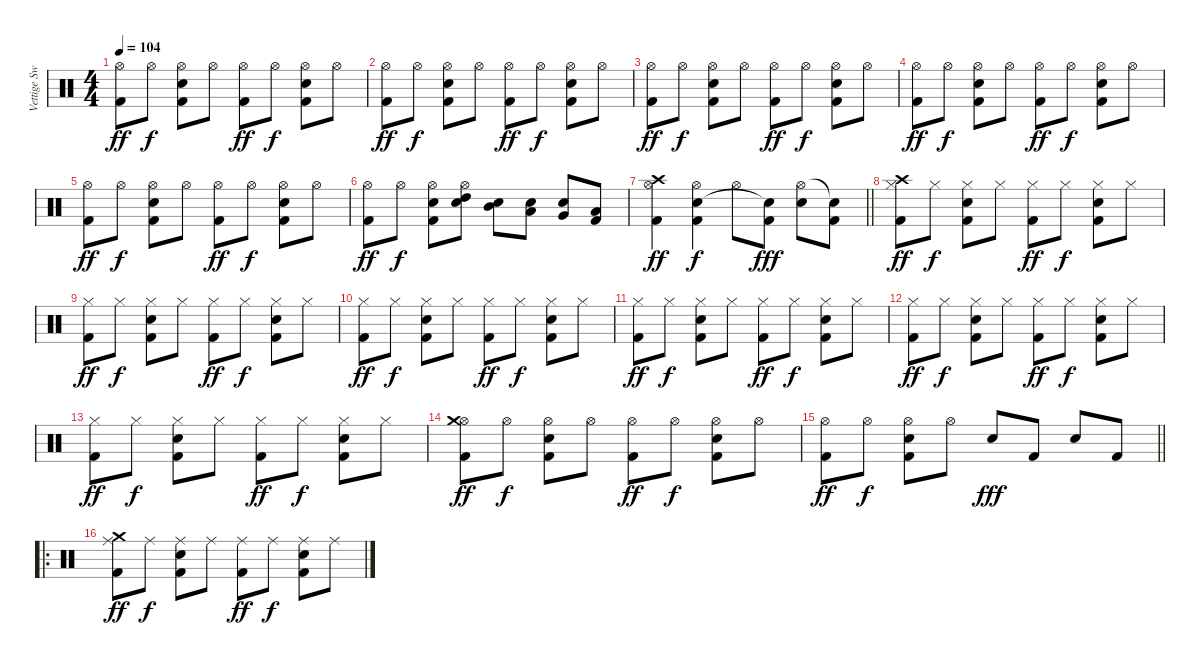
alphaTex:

\track ("Vettige Swa" "Vettige Sw") {instrument percussion}
\staff {score}
\articulation defaults
\ts (4 4)
\tempo 104
\clef neutral
\ks c
("Hi-Hat (open)" "Kick (hit) 2").8{dy ff} "Hi-Hat (open)".8{dy f} ("Hi-Hat (open)" "Electric Snare (hit)" "Kick (hit) 2").8 "Hi-Hat (open)".8 ("Hi-Hat (open)" "Kick (hit) 2").8{dy ff} "Hi-Hat (open)".8{dy f} ("Hi-Hat (open)" "Electric Snare (hit)" "Kick (hit) 2").8 "Hi-Hat (open)".8 |
("Hi-Hat (open)" "Kick (hit) 2").8{dy ff} "Hi-Hat (open)".8{dy f} ("Hi-Hat (open)" "Electric Snare (hit)" "Kick (hit) 2").8 "Hi-Hat (open)".8 ("Hi-Hat (open)" "Kick (hit) 2").8{dy ff} "Hi-Hat (open)".8{dy f} ("Hi-Hat (open)" "Electric Snare (hit)" "Kick (hit) 2").8 "Hi-Hat (open)".8 |
("Hi-Hat (open)" "Kick (hit) 2").8{dy ff} "Hi-Hat (open)".8{dy f} ("Hi-Hat (open)" "Electric Snare (hit)" "Kick (hit) 2").8 "Hi-Hat (open)".8 ("Hi-Hat (open)" "Kick (hit) 2").8{dy ff} "Hi-Hat (open)".8{dy f} ("Hi-Hat (open)" "Electric Snare (hit)" "Kick (hit) 2").8 "Hi-Hat (open)".8 |
("Hi-Hat (open)" "Kick (hit) 2").8{dy ff} "Hi-Hat (open)".8{dy f} ("Hi-Hat (open)" "Electric Snare (hit)" "Kick (hit) 2").8 "Hi-Hat (open)".8 ("Hi-Hat (open)" "Kick (hit) 2").8{dy ff} "Hi-Hat (open)".8{dy f} ("Hi-Hat (open)" "Electric Snare (hit)" "Kick (hit) 2").8 "Hi-Hat (open)".8 |
("Hi-Hat (open)" "Kick (hit) 2").8{dy ff} "Hi-Hat (open)".8{dy f} ("Hi-Hat (open)" "Electric Snare (hit)" "Kick (hit) 2").8 "Hi-Hat (open)".8 ("Hi-Hat (open)" "Kick (hit) 2").8{dy ff} "Hi-Hat (open)".8{dy f} ("Hi-Hat (open)" "Electric Snare (hit)" "Kick (hit) 2").8 "Hi-Hat (open)".8 |
("Hi-Hat (open)" "Kick (hit) 2").8{dy ff} "Hi-Hat (open)".8{dy f} ("Hi-Hat (open)" "Electric Snare (hit)" "Kick (hit) 2").8 ("Hi-Hat (open)" "Electric Snare (hit)" "High Tom (hit)").8 ("Electric Snare (hit)" "Mid Tom (hit)").8 ("Electric Snare (hit)" "Low Tom (hit)").8 ("Electric Snare (hit)" "Very Low Tom (hit)").8 ("Kick (hit) 2" "Low Floor Tom (hit)").8 |
\barLineRight lightlight
("Crash high (hit)" "Kick (hit) 2" "Hi-Hat (open)").4{dy ff} ("Hi-Hat (open)" "Electric Snare (hit)" "Kick (hit) 2").4{dy f} "Hi-Hat (open)".8 ("Kick (hit) 2" "Snare (hit)"{t}).8{dy fff} ("Electric Snare (hit)" "Hi-Hat (open)").8 ("Kick (hit) 2" "Snare (hit)"{t}).8 |
("Hi-Hat (closed)" "Crash high (hit)" "Kick (hit) 2").8{dy ff} "Hi-Hat (closed)".8{dy f} ("Hi-Hat (closed)" "Electric Snare (hit)" "Kick (hit) 2").8 "Hi-Hat (closed)".8 ("Hi-Hat (closed)" "Kick (hit) 2").8{dy ff} "Hi-Hat (closed)".8{dy f} ("Hi-Hat (closed)" "Electric Snare (hit)" "Kick (hit) 2").8 "Hi-Hat (closed)".8 |
("Hi-Hat (closed)" "Kick (hit) 2").8{dy ff} "Hi-Hat (closed)".8{dy f} ("Hi-Hat (closed)" "Electric Snare (hit)" "Kick (hit) 2").8 "Hi-Hat (closed)".8 ("Hi-Hat (closed)" "Kick (hit) 2").8{dy ff} "Hi-Hat (closed)".8{dy f} ("Hi-Hat (closed)" "Electric Snare (hit)" "Kick (hit) 2").8 "Hi-Hat (closed)".8 |
("Hi-Hat (closed)" "Kick (hit) 2").8{dy ff} "Hi-Hat (closed)".8{dy f} ("Hi-Hat (closed)" "Electric Snare (hit)" "Kick (hit) 2").8 "Hi-Hat (closed)".8 ("Hi-Hat (closed)" "Kick (hit) 2").8{dy ff} "Hi-Hat (closed)".8{dy f} ("Hi-Hat (closed)" "Electric Snare (hit)" "Kick (hit) 2").8 "Hi-Hat (closed)".8 |
("Hi-Hat (closed)" "Kick (hit) 2").8{dy ff} "Hi-Hat (closed)".8{dy f} ("Hi-Hat (closed)" "Electric Snare (hit)" "Kick (hit) 2").8 "Hi-Hat (closed)".8 ("Hi-Hat (closed)" "Kick (hit) 2").8{dy ff} "Hi-Hat (closed)".8{dy f} ("Hi-Hat (closed)" "Electric Snare (hit)" "Kick (hit) 2").8 "Hi-Hat (closed)".8 |
("Hi-Hat (closed)" "Kick (hit) 2").8{dy ff} "Hi-Hat (closed)".8{dy f} ("Hi-Hat (closed)" "Electric Snare (hit)" "Kick (hit) 2").8 "Hi-Hat (closed)".8 ("Hi-Hat (closed)" "Kick (hit) 2").8{dy ff} "Hi-Hat (closed)".8{dy f} ("Hi-Hat (closed)" "Electric Snare (hit)" "Kick (hit) 2").8 "Hi-Hat (closed)".8 |
("Hi-Hat (closed)" "Kick (hit) 2").8{dy ff} "Hi-Hat (closed)".8{dy f} ("Hi-Hat (closed)" "Electric Snare (hit)" "Kick (hit) 2").8 "Hi-Hat (closed)".8 ("Hi-Hat (closed)" "Kick (hit) 2").8{dy ff} "Hi-Hat (closed)".8{dy f} ("Hi-Hat (closed)" "Electric Snare (hit)" "Kick (hit) 2").8 "Hi-Hat (closed)".8 |
("Hi-Hat (open)" "Kick (hit) 2" "Crash medium (hit)").8{dy ff} "Hi-Hat (open)".8{dy f} ("Hi-Hat (open)" "Electric Snare (hit)" "Kick (hit) 2").8 "Hi-Hat (open)".8 ("Hi-Hat (open)" "Kick (hit) 2").8{dy ff} "Hi-Hat (open)".8{dy f} ("Hi-Hat (open)" "Electric Snare (hit)" "Kick (hit) 2").8 "Hi-Hat (open)".8 |
\barLineRight lightlight
("Hi-Hat (open)" "Kick (hit) 2").8{dy ff} "Hi-Hat (open)".8{dy f} ("Hi-Hat (open)" "Electric Snare (hit)" "Kick (hit) 2").8 "Hi-Hat (open)".8 "Electric Snare (hit)".8{dy fff} "Kick (hit) 2".8 "Electric Snare (hit)".8 "Kick (hit) 2".8 |
\ro
("Ride (middle)" "Kick (hit) 2" "Crash medium (hit)").8{dy ff} "Ride (middle)".8{dy f} ("Ride (middle)" "Electric Snare (hit)" "Kick (hit) 2").8 "Ride (middle)".8 ("Ride (middle)" "Kick (hit) 2").8{dy ff} "Ride (middle)".8{dy f} ("Ride (middle)" "Electric Snare (hit)" "Kick (hit) 2").8 "Ride (middle)".8
